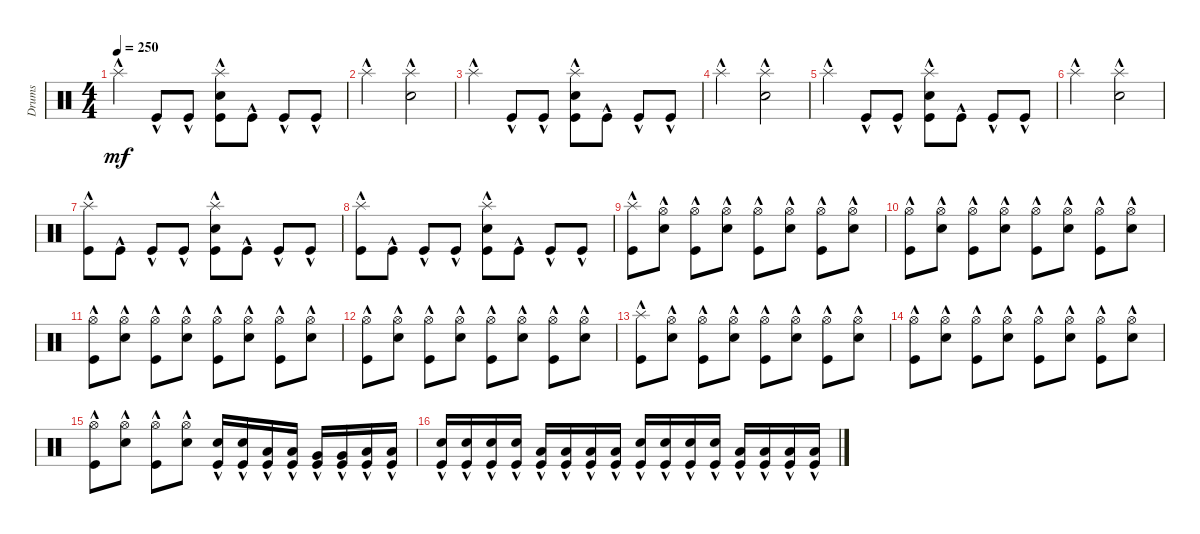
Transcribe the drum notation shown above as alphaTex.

\track ("Drums" "Drums") {instrument percussion}
\staff {score}
\articulation defaults
\ts (4 4)
\tempo 250
\clef neutral
\ks c "Splash (hit)"{hac}.4{dy mf} "Kick (hit)"{hac}.8 "Kick (hit)"{hac}.8
("Kick (hit)"{hac} "Snare (hit) 2"{hac} "Splash (hit)"{hac}).8 "Kick (hit)"{hac}.8 "Kick (hit)"{hac}.8 "Kick (hit)"{hac}.8 |
"Splash (hit)"{hac}.2 ("Splash (hit)"{hac} "Snare (hit) 2"{hac}).2 |
"Splash (hit)"{hac}.4 "Kick (hit)"{hac}.8 "Kick (hit)"{hac}.8 ("Kick (hit)"{hac} "Snare (hit) 2"{hac} "Splash (hit)"{hac}).8 "Kick (hit)"{hac}.8 "Kick (hit)"{hac}.8 "Kick (hit)"{hac}.8 |
"Splash (hit)"{hac}.2 ("Splash (hit)"{hac} "Snare (hit) 2"{hac}).2 |
"Splash (hit)"{hac}.4 "Kick (hit)"{hac}.8 "Kick (hit)"{hac}.8 ("Kick (hit)"{hac} "Snare (hit) 2"{hac} "Splash (hit)"{hac}).8 "Kick (hit)"{hac}.8 "Kick (hit)"{hac}.8 "Kick (hit)"{hac}.8 |
"Splash (hit)"{hac}.2 ("Splash (hit)"{hac} "Snare (hit) 2"{hac}).2 |
("Kick (hit)"{hac} "Splash (hit)"{hac}).8 "Kick (hit)"{hac}.8 "Kick (hit)"{hac}.8 "Kick (hit)"{hac}.8 ("Kick (hit)"{hac} "Splash (hit)"{hac} "Snare (hit) 2"{hac}).8 "Kick (hit)"{hac}.8 "Kick (hit)"{hac}.8 "Kick (hit)"{hac}.8 |
("Kick (hit)"{hac} "Splash (hit)"{hac}).8 "Kick (hit)"{hac}.8 "Kick (hit)"{hac}.8 "Kick (hit)"{hac}.8 ("Kick (hit)"{hac} "Splash (hit)"{hac} "Snare (hit) 2"{hac}).8 "Kick (hit)"{hac}.8 "Kick (hit)"{hac}.8 "Kick (hit)"{hac}.8 |
("Kick (hit)"{hac} "Splash (hit)"{hac}).8 ("Hi-Hat (open)"{hac} "Snare (hit) 2"{hac}).8 ("Hi-Hat (open)"{hac} "Kick (hit)"{hac}).8 ("Hi-Hat (open)"{hac} "Snare (hit) 2"{hac}).8 ("Hi-Hat (open)"{hac} "Kick (hit)"{hac}).8 ("Hi-Hat (open)"{hac} "Snare (hit) 2"{hac}).8 ("Hi-Hat (open)"{hac} "Kick (hit)"{hac}).8 ("Hi-Hat (open)"{hac} "Snare (hit) 2"{hac}).8 |
("Hi-Hat (open)"{hac} "Kick (hit)"{hac}).8 ("Hi-Hat (open)"{hac} "Snare (hit) 2"{hac}).8 ("Hi-Hat (open)"{hac} "Kick (hit)"{hac}).8 ("Hi-Hat (open)"{hac} "Snare (hit) 2"{hac}).8 ("Hi-Hat (open)"{hac} "Kick (hit)"{hac}).8 ("Hi-Hat (open)"{hac} "Snare (hit) 2"{hac}).8 ("Hi-Hat (open)"{hac} "Kick (hit)"{hac}).8 ("Hi-Hat (open)"{hac} "Snare (hit) 2"{hac}).8 |
("Hi-Hat (open)"{hac} "Kick (hit)"{hac}).8 ("Hi-Hat (open)"{hac} "Snare (hit) 2"{hac}).8 ("Hi-Hat (open)"{hac} "Kick (hit)"{hac}).8 ("Hi-Hat (open)"{hac} "Snare (hit) 2"{hac}).8 ("Hi-Hat (open)"{hac} "Kick (hit)"{hac}).8 ("Hi-Hat (open)"{hac} "Snare (hit) 2"{hac}).8 ("Hi-Hat (open)"{hac} "Kick (hit)"{hac}).8 ("Hi-Hat (open)"{hac} "Snare (hit) 2"{hac}).8 |
("Hi-Hat (open)"{hac} "Kick (hit)"{hac}).8 ("Hi-Hat (open)"{hac} "Snare (hit) 2"{hac}).8 ("Hi-Hat (open)"{hac} "Kick (hit)"{hac}).8 ("Hi-Hat (open)"{hac} "Snare (hit) 2"{hac}).8 ("Hi-Hat (open)"{hac} "Kick (hit)"{hac}).8 ("Hi-Hat (open)"{hac} "Snare (hit) 2"{hac}).8 ("Hi-Hat (open)"{hac} "Kick (hit)"{hac}).8 ("Hi-Hat (open)"{hac} "Snare (hit) 2"{hac}).8 |
("Kick (hit)"{hac} "Splash (hit)"{hac}).8 ("Hi-Hat (open)"{hac} "Snare (hit) 2"{hac}).8 ("Hi-Hat (open)"{hac} "Kick (hit)"{hac}).8 ("Hi-Hat (open)"{hac} "Snare (hit) 2"{hac}).8 ("Hi-Hat (open)"{hac} "Kick (hit)"{hac}).8 ("Hi-Hat (open)"{hac} "Snare (hit) 2"{hac}).8 ("Hi-Hat (open)"{hac} "Kick (hit)"{hac}).8 ("Hi-Hat (open)"{hac} "Snare (hit) 2"{hac}).8 |
("Hi-Hat (open)"{hac} "Kick (hit)"{hac}).8 ("Hi-Hat (open)"{hac} "Snare (hit) 2"{hac}).8 ("Hi-Hat (open)"{hac} "Kick (hit)"{hac}).8 ("Hi-Hat (open)"{hac} "Snare (hit) 2"{hac}).8 ("Hi-Hat (open)"{hac} "Kick (hit)"{hac}).8 ("Hi-Hat (open)"{hac} "Snare (hit) 2"{hac}).8 ("Hi-Hat (open)"{hac} "Kick (hit)"{hac}).8 ("Hi-Hat (open)"{hac} "Snare (hit) 2"{hac}).8 |
("Hi-Hat (open)"{hac} "Kick (hit)"{hac}).8 ("Hi-Hat (open)"{hac} "Snare (hit) 2"{hac}).8 ("Hi-Hat (open)"{hac} "Kick (hit)"{hac}).8 ("Hi-Hat (open)"{hac} "Snare (hit) 2"{hac}).8 ("Snare (hit) 2"{hac} "Kick (hit)"{hac}).16 ("Snare (hit) 2"{hac} "Kick (hit)"{hac}).16 ("Low Tom (hit)"{hac} "Kick (hit)"{hac}).16 ("Low Tom (hit)"{hac} "Kick (hit)"{hac}).16 ("Very Low Tom (hit)"{hac} "Kick (hit)"{hac}).16 ("Very Low Tom (hit)"{hac} "Kick (hit)"{hac}).16 ("Low Floor Tom (hit)"{hac} "Kick (hit)"{hac}).16 ("Low Floor Tom (hit)"{hac} "Kick (hit)"{hac}).16 |
("Snare (hit) 2"{hac} "Kick (hit)"{hac}).16 ("Snare (hit) 2"{hac} "Kick (hit)"{hac}).16 ("Snare (hit) 2"{hac} "Kick (hit)"{hac}).16 ("Snare (hit) 2"{hac} "Kick (hit)"{hac}).16 ("Low Tom (hit)"{hac} "Kick (hit)"{hac}).16 ("Low Tom (hit)"{hac} "Kick (hit)"{hac}).16 ("Low Tom (hit)"{hac} "Kick (hit)"{hac}).16 ("Low Tom (hit)"{hac} "Kick (hit)"{hac}).16 ("Snare (hit) 2"{hac} "Kick (hit)"{hac}).16 ("Snare (hit) 2"{hac} "Kick (hit)"{hac}).16 ("Snare (hit) 2"{hac} "Kick (hit)"{hac}).16 ("Snare (hit) 2"{hac} "Kick (hit)"{hac}).16 ("Low Tom (hit)"{hac} "Kick (hit)"{hac}).16 ("Low Tom (hit)"{hac} "Kick (hit)"{hac}).16 ("Low Tom (hit)"{hac} "Kick (hit)"{hac}).16 ("Low Tom (hit)"{hac} "Kick (hit)"{hac}).16
